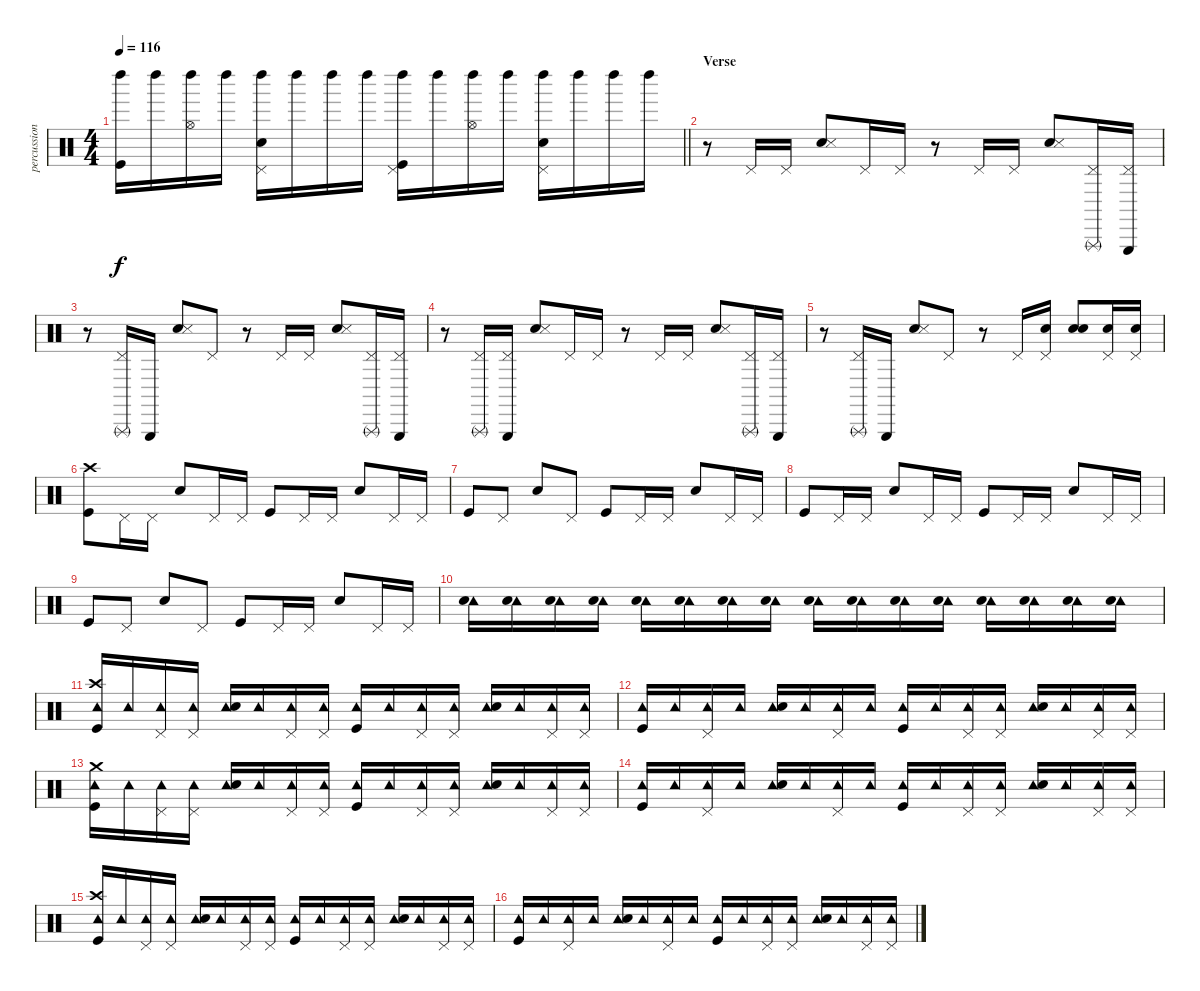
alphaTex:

\track ("percussion" "percussion") {instrument percussion}
\staff {score}
\articulation defaults
\ts (4 4)
\tempo 116
\clef neutral
\barLineRight lightlight
\ks c
("Left Maraca (hit)" "Kick (hit)").16{dy f} "Left Maraca (hit)".16 ("Left Maraca (hit)" "Hi-Hat (open)").16 "Left Maraca (hit)".16 ("Left Maraca (hit)" "Electric Snare (hit)" "Pedal Hi-Hat (hit)").16 "Left Maraca (hit)".16 "Left Maraca (hit)".16 "Left Maraca (hit)".16 ("Left Maraca (hit)" "Pedal Hi-Hat (hit)" "Kick (hit)").16 "Left Maraca (hit)".16 ("Left Maraca (hit)" "Hi-Hat (open)").16 "Left Maraca (hit)".16 ("Left Maraca (hit)" "Electric Snare (hit)" "Pedal Hi-Hat (hit)").16 "Left Maraca (hit)".16 "Left Maraca (hit)".16 "Left Maraca (hit)".16 |
\section ("" "Verse")
r.8 "Pedal Hi-Hat (hit)".16 "Pedal Hi-Hat (hit)".16 ("Hand Clap (hit)" "Snare (side stick) 3").8 "Pedal Hi-Hat (hit)".16 "Pedal Hi-Hat (hit)".16 r.8 "Pedal Hi-Hat (hit)".16 "Pedal Hi-Hat (hit)".16 ("Hand Clap (hit)" "Snare (side stick) 3").8 ("Triangle (rnute)" "Pedal Hi-Hat (hit)").16 ("Triangle (hit)" "Pedal Hi-Hat (hit)").16 |
r.8 ("Triangle (rnute)" "Pedal Hi-Hat (hit)").16 "Triangle (hit)".16 ("Hand Clap (hit)" "Snare (side stick) 3").8 "Pedal Hi-Hat (hit)".8 r.8 "Pedal Hi-Hat (hit)".16 "Pedal Hi-Hat (hit)".16 ("Hand Clap (hit)" "Snare (side stick) 3").8 ("Triangle (rnute)" "Pedal Hi-Hat (hit)").16 ("Triangle (hit)" "Pedal Hi-Hat (hit)").16 |
r.8 ("Triangle (rnute)" "Pedal Hi-Hat (hit)").16 ("Triangle (hit)" "Pedal Hi-Hat (hit)").16 ("Hand Clap (hit)" "Snare (side stick) 3").8 "Pedal Hi-Hat (hit)".16 "Pedal Hi-Hat (hit)".16 r.8 "Pedal Hi-Hat (hit)".16 "Pedal Hi-Hat (hit)".16 ("Hand Clap (hit)" "Snare (side stick) 3").8 ("Triangle (rnute)" "Pedal Hi-Hat (hit)").16 ("Triangle (hit)" "Pedal Hi-Hat (hit)").16 |
r.8 ("Triangle (rnute)" "Pedal Hi-Hat (hit)").16 "Triangle (hit)".16 ("Hand Clap (hit)" "Snare (side stick) 3").8 "Pedal Hi-Hat (hit)".8 r.8 "Pedal Hi-Hat (hit)".16 ("Electric Snare (hit)" "Pedal Hi-Hat (hit)").16 ("Hand Clap (hit)" "Electric Snare (hit)").8 ("Electric Snare (hit)" "Pedal Hi-Hat (hit)").16 ("Electric Snare (hit)" "Pedal Hi-Hat (hit)").16 |
("Crash high (hit)" "Kick (hit)").8 "Pedal Hi-Hat (hit)".16 "Pedal Hi-Hat (hit)".16 "Electric Snare (hit)".8 "Pedal Hi-Hat (hit)".16 "Pedal Hi-Hat (hit)".16 "Kick (hit)".8 "Pedal Hi-Hat (hit)".16 "Pedal Hi-Hat (hit)".16 "Electric Snare (hit)".8 "Pedal Hi-Hat (hit)".16 "Pedal Hi-Hat (hit)".16 |
"Kick (hit)".8 "Pedal Hi-Hat (hit)".8 "Electric Snare (hit)".8 "Pedal Hi-Hat (hit)".8 "Kick (hit)".8 "Pedal Hi-Hat (hit)".16 "Pedal Hi-Hat (hit)".16 "Electric Snare (hit)".8 "Pedal Hi-Hat (hit)".16 "Pedal Hi-Hat (hit)".16 |
"Kick (hit)".8 "Pedal Hi-Hat (hit)".16 "Pedal Hi-Hat (hit)".16 "Electric Snare (hit)".8 "Pedal Hi-Hat (hit)".16 "Pedal Hi-Hat (hit)".16 "Kick (hit)".8 "Pedal Hi-Hat (hit)".16 "Pedal Hi-Hat (hit)".16 "Electric Snare (hit)".8 "Pedal Hi-Hat (hit)".16 "Pedal Hi-Hat (hit)".16 |
"Kick (hit)".8 "Pedal Hi-Hat (hit)".8 "Electric Snare (hit)".8 "Pedal Hi-Hat (hit)".8 "Kick (hit)".8 "Pedal Hi-Hat (hit)".16 "Pedal Hi-Hat (hit)".16 "Electric Snare (hit)".8 "Pedal Hi-Hat (hit)".16 "Pedal Hi-Hat (hit)".16 |
("Tambourine (hit)" "Electric Snare (hit)").16 ("Tambourine (hit)" "Electric Snare (hit)").16 ("Tambourine (hit)" "Electric Snare (hit)").16 ("Tambourine (hit)" "Electric Snare (hit)").16 ("Tambourine (hit)" "Electric Snare (hit)").16 ("Tambourine (hit)" "Electric Snare (hit)").16 ("Tambourine (hit)" "Electric Snare (hit)").16 ("Tambourine (hit)" "Electric Snare (hit)").16 ("Tambourine (hit)" "Electric Snare (hit)").16 ("Tambourine (hit)" "Electric Snare (hit)").16 ("Tambourine (hit)" "Electric Snare (hit)").16 ("Tambourine (hit)" "Electric Snare (hit)").16 ("Tambourine (hit)" "Electric Snare (hit)").16 ("Tambourine (hit)" "Electric Snare (hit)").16 ("Tambourine (hit)" "Electric Snare (hit)").16 ("Tambourine (hit)" "Electric Snare (hit)").16 |
("Crash high (hit)" "Tambourine (hit)" "Kick (hit)").16 "Tambourine (hit)".16 ("Tambourine (hit)" "Pedal Hi-Hat (hit)").16 ("Tambourine (hit)" "Pedal Hi-Hat (hit)").16 ("Tambourine (hit)" "Electric Snare (hit)").16 "Tambourine (hit)".16 ("Tambourine (hit)" "Pedal Hi-Hat (hit)").16 ("Tambourine (hit)" "Pedal Hi-Hat (hit)").16 ("Tambourine (hit)" "Kick (hit)").16 "Tambourine (hit)".16 ("Tambourine (hit)" "Pedal Hi-Hat (hit)").16 ("Tambourine (hit)" "Pedal Hi-Hat (hit)").16 ("Tambourine (hit)" "Electric Snare (hit)").16 "Tambourine (hit)".16 ("Tambourine (hit)" "Pedal Hi-Hat (hit)").16 ("Tambourine (hit)" "Pedal Hi-Hat (hit)").16 |
("Tambourine (hit)" "Kick (hit)").16 "Tambourine (hit)".16 ("Tambourine (hit)" "Pedal Hi-Hat (hit)").16 "Tambourine (hit)".16 ("Tambourine (hit)" "Electric Snare (hit)").16 "Tambourine (hit)".16 ("Tambourine (hit)" "Pedal Hi-Hat (hit)").16 "Tambourine (hit)".16 ("Tambourine (hit)" "Kick (hit)").16 "Tambourine (hit)".16 ("Tambourine (hit)" "Pedal Hi-Hat (hit)").16 ("Tambourine (hit)" "Pedal Hi-Hat (hit)").16 ("Tambourine (hit)" "Electric Snare (hit)").16 "Tambourine (hit)".16 ("Tambourine (hit)" "Pedal Hi-Hat (hit)").16 ("Tambourine (hit)" "Pedal Hi-Hat (hit)").16 |
("Crash medium (hit)" "Tambourine (hit)" "Kick (hit)").16 "Tambourine (hit)".16 ("Tambourine (hit)" "Pedal Hi-Hat (hit)").16 ("Tambourine (hit)" "Pedal Hi-Hat (hit)").16 ("Tambourine (hit)" "Electric Snare (hit)").16 "Tambourine (hit)".16 ("Tambourine (hit)" "Pedal Hi-Hat (hit)").16 ("Tambourine (hit)" "Pedal Hi-Hat (hit)").16 ("Tambourine (hit)" "Kick (hit)").16 "Tambourine (hit)".16 ("Tambourine (hit)" "Pedal Hi-Hat (hit)").16 ("Tambourine (hit)" "Pedal Hi-Hat (hit)").16 ("Tambourine (hit)" "Electric Snare (hit)").16 "Tambourine (hit)".16 ("Tambourine (hit)" "Pedal Hi-Hat (hit)").16 ("Tambourine (hit)" "Pedal Hi-Hat (hit)").16 |
("Tambourine (hit)" "Kick (hit)").16 "Tambourine (hit)".16 ("Tambourine (hit)" "Pedal Hi-Hat (hit)").16 "Tambourine (hit)".16 ("Tambourine (hit)" "Electric Snare (hit)").16 "Tambourine (hit)".16 ("Tambourine (hit)" "Pedal Hi-Hat (hit)").16 "Tambourine (hit)".16 ("Tambourine (hit)" "Kick (hit)").16 "Tambourine (hit)".16 ("Tambourine (hit)" "Pedal Hi-Hat (hit)").16 ("Tambourine (hit)" "Pedal Hi-Hat (hit)").16 ("Tambourine (hit)" "Electric Snare (hit)").16 "Tambourine (hit)".16 ("Tambourine (hit)" "Pedal Hi-Hat (hit)").16 ("Tambourine (hit)" "Pedal Hi-Hat (hit)").16 |
("Crash high (hit)" "Tambourine (hit)" "Kick (hit)").16 "Tambourine (hit)".16 ("Tambourine (hit)" "Pedal Hi-Hat (hit)").16 ("Tambourine (hit)" "Pedal Hi-Hat (hit)").16 ("Tambourine (hit)" "Electric Snare (hit)").16 "Tambourine (hit)".16 ("Tambourine (hit)" "Pedal Hi-Hat (hit)").16 ("Tambourine (hit)" "Pedal Hi-Hat (hit)").16 ("Tambourine (hit)" "Kick (hit)").16 "Tambourine (hit)".16 ("Tambourine (hit)" "Pedal Hi-Hat (hit)").16 ("Tambourine (hit)" "Pedal Hi-Hat (hit)").16 ("Tambourine (hit)" "Electric Snare (hit)").16 "Tambourine (hit)".16 ("Tambourine (hit)" "Pedal Hi-Hat (hit)").16 ("Tambourine (hit)" "Pedal Hi-Hat (hit)").16 |
("Tambourine (hit)" "Kick (hit)").16 "Tambourine (hit)".16 ("Tambourine (hit)" "Pedal Hi-Hat (hit)").16 "Tambourine (hit)".16 ("Tambourine (hit)" "Electric Snare (hit)").16 "Tambourine (hit)".16 ("Tambourine (hit)" "Pedal Hi-Hat (hit)").16 "Tambourine (hit)".16 ("Tambourine (hit)" "Kick (hit)").16 "Tambourine (hit)".16 ("Tambourine (hit)" "Pedal Hi-Hat (hit)").16 ("Tambourine (hit)" "Pedal Hi-Hat (hit)").16 ("Tambourine (hit)" "Electric Snare (hit)").16 "Tambourine (hit)".16 ("Tambourine (hit)" "Pedal Hi-Hat (hit)").16 ("Tambourine (hit)" "Pedal Hi-Hat (hit)").16
